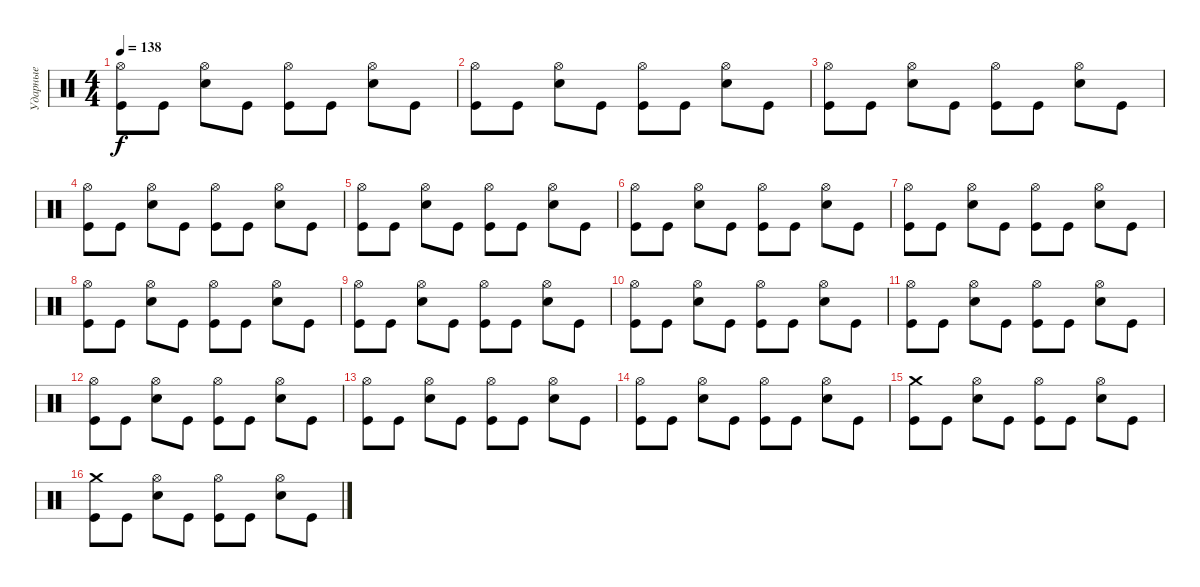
\track ("Ударные" "Ударные") {instrument percussion}
\staff {score}
\articulation defaults
\ts (4 4)
\tempo 138
\clef neutral
\ks c
("Hi-Hat (open)" "Kick (hit)").8{dy f} "Kick (hit)".8 ("Hi-Hat (open)" "Snare (hit) 2").8 "Kick (hit)".8 ("Hi-Hat (open)" "Kick (hit)").8 "Kick (hit)".8 ("Hi-Hat (open)" "Snare (hit) 2").8 "Kick (hit)".8 |
("Hi-Hat (open)" "Kick (hit)").8 "Kick (hit)".8 ("Hi-Hat (open)" "Snare (hit) 2").8 "Kick (hit)".8 ("Hi-Hat (open)" "Kick (hit)").8 "Kick (hit)".8 ("Hi-Hat (open)" "Snare (hit) 2").8 "Kick (hit)".8 |
("Hi-Hat (open)" "Kick (hit)").8 "Kick (hit)".8 ("Hi-Hat (open)" "Snare (hit) 2").8 "Kick (hit)".8 ("Hi-Hat (open)" "Kick (hit)").8 "Kick (hit)".8 ("Hi-Hat (open)" "Snare (hit) 2").8 "Kick (hit)".8 |
("Hi-Hat (open)" "Kick (hit)").8 "Kick (hit)".8 ("Hi-Hat (open)" "Snare (hit) 2").8 "Kick (hit)".8 ("Hi-Hat (open)" "Kick (hit)").8 "Kick (hit)".8 ("Hi-Hat (open)" "Snare (hit) 2").8 "Kick (hit)".8 |
("Hi-Hat (open)" "Kick (hit)").8 "Kick (hit)".8 ("Hi-Hat (open)" "Snare (hit) 2").8 "Kick (hit)".8 ("Hi-Hat (open)" "Kick (hit)").8 "Kick (hit)".8 ("Hi-Hat (open)" "Snare (hit) 2").8 "Kick (hit)".8 |
("Hi-Hat (open)" "Kick (hit)").8 "Kick (hit)".8 ("Hi-Hat (open)" "Snare (hit) 2").8 "Kick (hit)".8 ("Hi-Hat (open)" "Kick (hit)").8 "Kick (hit)".8 ("Hi-Hat (open)" "Snare (hit) 2").8 "Kick (hit)".8 |
("Hi-Hat (open)" "Kick (hit)").8 "Kick (hit)".8 ("Hi-Hat (open)" "Snare (hit) 2").8 "Kick (hit)".8 ("Hi-Hat (open)" "Kick (hit)").8 "Kick (hit)".8 ("Hi-Hat (open)" "Snare (hit) 2").8 "Kick (hit)".8 |
("Hi-Hat (open)" "Kick (hit)").8 "Kick (hit)".8 ("Hi-Hat (open)" "Snare (hit) 2").8 "Kick (hit)".8 ("Hi-Hat (open)" "Kick (hit)").8 "Kick (hit)".8 ("Hi-Hat (open)" "Snare (hit) 2").8 "Kick (hit)".8 |
("Hi-Hat (open)" "Kick (hit)").8 "Kick (hit)".8 ("Hi-Hat (open)" "Snare (hit) 2").8 "Kick (hit)".8 ("Hi-Hat (open)" "Kick (hit)").8 "Kick (hit)".8 ("Hi-Hat (open)" "Snare (hit) 2").8 "Kick (hit)".8 |
("Hi-Hat (open)" "Kick (hit)").8 "Kick (hit)".8 ("Hi-Hat (open)" "Snare (hit) 2").8 "Kick (hit)".8 ("Hi-Hat (open)" "Kick (hit)").8 "Kick (hit)".8 ("Hi-Hat (open)" "Snare (hit) 2").8 "Kick (hit)".8 |
("Hi-Hat (open)" "Kick (hit)").8 "Kick (hit)".8 ("Hi-Hat (open)" "Snare (hit) 2").8 "Kick (hit)".8 ("Hi-Hat (open)" "Kick (hit)").8 "Kick (hit)".8 ("Hi-Hat (open)" "Snare (hit) 2").8 "Kick (hit)".8 |
("Hi-Hat (open)" "Kick (hit)").8 "Kick (hit)".8 ("Hi-Hat (open)" "Snare (hit) 2").8 "Kick (hit)".8 ("Hi-Hat (open)" "Kick (hit)").8 "Kick (hit)".8 ("Hi-Hat (open)" "Snare (hit) 2").8 "Kick (hit)".8 |
("Hi-Hat (open)" "Kick (hit)").8 "Kick (hit)".8 ("Hi-Hat (open)" "Snare (hit) 2").8 "Kick (hit)".8 ("Hi-Hat (open)" "Kick (hit)").8 "Kick (hit)".8 ("Hi-Hat (open)" "Snare (hit) 2").8 "Kick (hit)".8 |
("Hi-Hat (open)" "Kick (hit)").8 "Kick (hit)".8 ("Hi-Hat (open)" "Snare (hit) 2").8 "Kick (hit)".8 ("Hi-Hat (open)" "Kick (hit)").8 "Kick (hit)".8 ("Hi-Hat (open)" "Snare (hit) 2").8 "Kick (hit)".8 |
("Crash medium (hit)" "Kick (hit)").8 "Kick (hit)".8 ("Hi-Hat (open)" "Snare (hit) 2").8 "Kick (hit)".8 ("Hi-Hat (open)" "Kick (hit)").8 "Kick (hit)".8 ("Hi-Hat (open)" "Snare (hit) 2").8 "Kick (hit)".8 |
("Crash medium (hit)" "Kick (hit)").8 "Kick (hit)".8 ("Hi-Hat (open)" "Snare (hit) 2").8 "Kick (hit)".8 ("Hi-Hat (open)" "Kick (hit)").8 "Kick (hit)".8 ("Hi-Hat (open)" "Snare (hit) 2").8 "Kick (hit)".8
